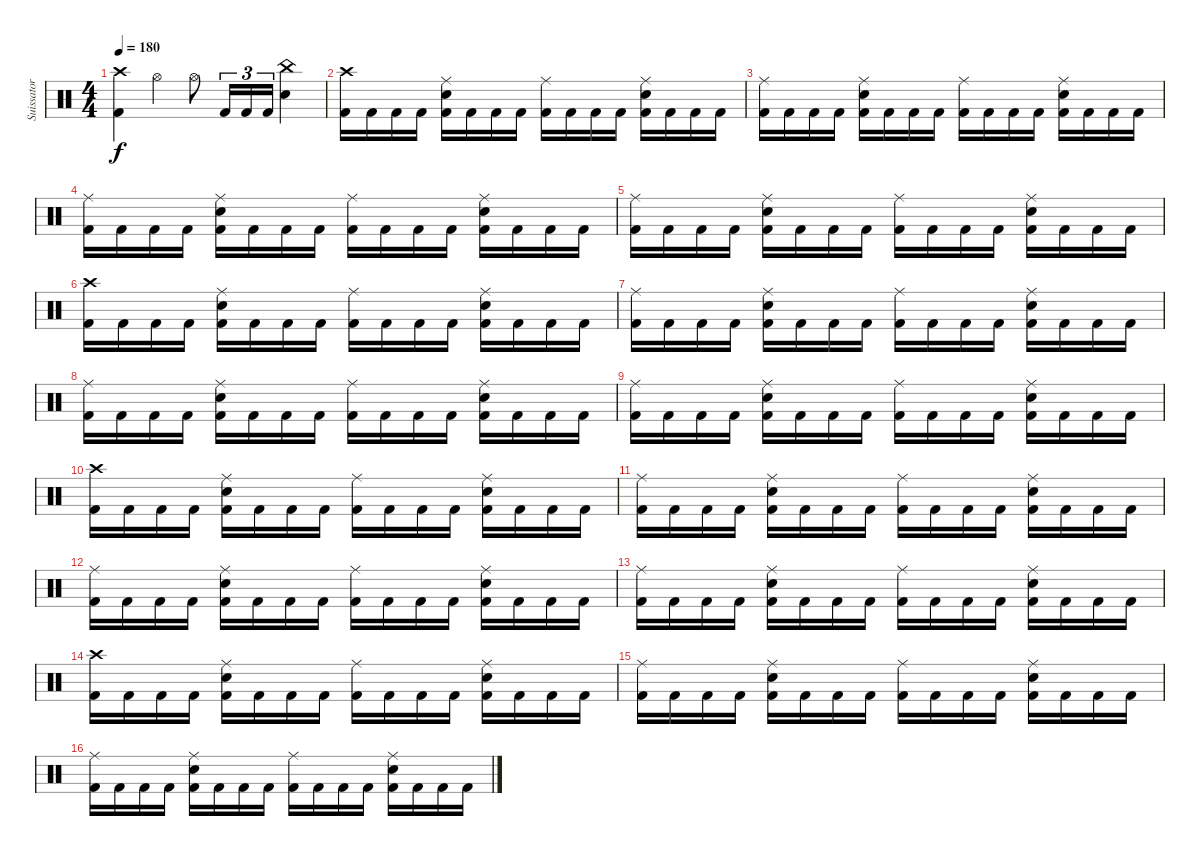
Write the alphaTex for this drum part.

\track ("Suissator" "Suissator") {instrument percussion}
\staff {score}
\articulation defaults
\ts (4 4)
\tempo 180
\clef neutral
\ks c
("Kick (hit) 2" "Crash high (hit)").4{dy f} "Hi-Hat (open)".4 "Hi-Hat (open)".8 "Kick (hit) 2".16{tu (3 2)} "Kick (hit) 2".16{tu (3 2)} "Kick (hit) 2".16{tu (3 2)} ("Electric Snare (hit)" "China (hit)").4 |
("Kick (hit) 2" "Crash high (hit)").16 "Kick (hit) 2".16 "Kick (hit) 2".16 "Kick (hit) 2".16 ("Kick (hit) 2" "Electric Snare (hit)" "Ride (middle)").16 "Kick (hit) 2".16 "Kick (hit) 2".16 "Kick (hit) 2".16 ("Kick (hit) 2" "Ride (middle)").16 "Kick (hit) 2".16 "Kick (hit) 2".16 "Kick (hit) 2".16 ("Kick (hit) 2" "Electric Snare (hit)" "Ride (middle)").16 "Kick (hit) 2".16 "Kick (hit) 2".16 "Kick (hit) 2".16 |
("Kick (hit) 2" "Ride (middle)").16 "Kick (hit) 2".16 "Kick (hit) 2".16 "Kick (hit) 2".16 ("Kick (hit) 2" "Electric Snare (hit)" "Ride (middle)").16 "Kick (hit) 2".16 "Kick (hit) 2".16 "Kick (hit) 2".16 ("Kick (hit) 2" "Ride (middle)").16 "Kick (hit) 2".16 "Kick (hit) 2".16 "Kick (hit) 2".16 ("Kick (hit) 2" "Electric Snare (hit)" "Ride (middle)").16 "Kick (hit) 2".16 "Kick (hit) 2".16 "Kick (hit) 2".16 |
("Kick (hit) 2" "Ride (middle)").16 "Kick (hit) 2".16 "Kick (hit) 2".16 "Kick (hit) 2".16 ("Kick (hit) 2" "Electric Snare (hit)" "Ride (middle)").16 "Kick (hit) 2".16 "Kick (hit) 2".16 "Kick (hit) 2".16 ("Kick (hit) 2" "Ride (middle)").16 "Kick (hit) 2".16 "Kick (hit) 2".16 "Kick (hit) 2".16 ("Kick (hit) 2" "Electric Snare (hit)" "Ride (middle)").16 "Kick (hit) 2".16 "Kick (hit) 2".16 "Kick (hit) 2".16 |
("Kick (hit) 2" "Ride (middle)").16 "Kick (hit) 2".16 "Kick (hit) 2".16 "Kick (hit) 2".16 ("Kick (hit) 2" "Electric Snare (hit)" "Ride (middle)").16 "Kick (hit) 2".16 "Kick (hit) 2".16 "Kick (hit) 2".16 ("Kick (hit) 2" "Ride (middle)").16 "Kick (hit) 2".16 "Kick (hit) 2".16 "Kick (hit) 2".16 ("Kick (hit) 2" "Electric Snare (hit)" "Ride (middle)").16 "Kick (hit) 2".16 "Kick (hit) 2".16 "Kick (hit) 2".16 |
("Kick (hit) 2" "Crash high (hit)").16 "Kick (hit) 2".16 "Kick (hit) 2".16 "Kick (hit) 2".16 ("Kick (hit) 2" "Electric Snare (hit)" "Ride (middle)").16 "Kick (hit) 2".16 "Kick (hit) 2".16 "Kick (hit) 2".16 ("Kick (hit) 2" "Ride (middle)").16 "Kick (hit) 2".16 "Kick (hit) 2".16 "Kick (hit) 2".16 ("Kick (hit) 2" "Electric Snare (hit)" "Ride (middle)").16 "Kick (hit) 2".16 "Kick (hit) 2".16 "Kick (hit) 2".16 |
("Kick (hit) 2" "Ride (middle)").16 "Kick (hit) 2".16 "Kick (hit) 2".16 "Kick (hit) 2".16 ("Kick (hit) 2" "Electric Snare (hit)" "Ride (middle)").16 "Kick (hit) 2".16 "Kick (hit) 2".16 "Kick (hit) 2".16 ("Kick (hit) 2" "Ride (middle)").16 "Kick (hit) 2".16 "Kick (hit) 2".16 "Kick (hit) 2".16 ("Kick (hit) 2" "Electric Snare (hit)" "Ride (middle)").16 "Kick (hit) 2".16 "Kick (hit) 2".16 "Kick (hit) 2".16 |
("Kick (hit) 2" "Ride (middle)").16 "Kick (hit) 2".16 "Kick (hit) 2".16 "Kick (hit) 2".16 ("Kick (hit) 2" "Electric Snare (hit)" "Ride (middle)").16 "Kick (hit) 2".16 "Kick (hit) 2".16 "Kick (hit) 2".16 ("Kick (hit) 2" "Ride (middle)").16 "Kick (hit) 2".16 "Kick (hit) 2".16 "Kick (hit) 2".16 ("Kick (hit) 2" "Electric Snare (hit)" "Ride (middle)").16 "Kick (hit) 2".16 "Kick (hit) 2".16 "Kick (hit) 2".16 |
("Kick (hit) 2" "Ride (middle)").16 "Kick (hit) 2".16 "Kick (hit) 2".16 "Kick (hit) 2".16 ("Kick (hit) 2" "Electric Snare (hit)" "Ride (middle)").16 "Kick (hit) 2".16 "Kick (hit) 2".16 "Kick (hit) 2".16 ("Kick (hit) 2" "Ride (middle)").16 "Kick (hit) 2".16 "Kick (hit) 2".16 "Kick (hit) 2".16 ("Kick (hit) 2" "Electric Snare (hit)" "Ride (middle)").16 "Kick (hit) 2".16 "Kick (hit) 2".16 "Kick (hit) 2".16 |
("Kick (hit) 2" "Crash high (hit)").16 "Kick (hit) 2".16 "Kick (hit) 2".16 "Kick (hit) 2".16 ("Kick (hit) 2" "Electric Snare (hit)" "Ride (middle)").16 "Kick (hit) 2".16 "Kick (hit) 2".16 "Kick (hit) 2".16 ("Kick (hit) 2" "Ride (middle)").16 "Kick (hit) 2".16 "Kick (hit) 2".16 "Kick (hit) 2".16 ("Kick (hit) 2" "Electric Snare (hit)" "Ride (middle)").16 "Kick (hit) 2".16 "Kick (hit) 2".16 "Kick (hit) 2".16 |
("Kick (hit) 2" "Ride (middle)").16 "Kick (hit) 2".16 "Kick (hit) 2".16 "Kick (hit) 2".16 ("Kick (hit) 2" "Electric Snare (hit)" "Ride (middle)").16 "Kick (hit) 2".16 "Kick (hit) 2".16 "Kick (hit) 2".16 ("Kick (hit) 2" "Ride (middle)").16 "Kick (hit) 2".16 "Kick (hit) 2".16 "Kick (hit) 2".16 ("Kick (hit) 2" "Electric Snare (hit)" "Ride (middle)").16 "Kick (hit) 2".16 "Kick (hit) 2".16 "Kick (hit) 2".16 |
("Kick (hit) 2" "Ride (middle)").16 "Kick (hit) 2".16 "Kick (hit) 2".16 "Kick (hit) 2".16 ("Kick (hit) 2" "Electric Snare (hit)" "Ride (middle)").16 "Kick (hit) 2".16 "Kick (hit) 2".16 "Kick (hit) 2".16 ("Kick (hit) 2" "Ride (middle)").16 "Kick (hit) 2".16 "Kick (hit) 2".16 "Kick (hit) 2".16 ("Kick (hit) 2" "Electric Snare (hit)" "Ride (middle)").16 "Kick (hit) 2".16 "Kick (hit) 2".16 "Kick (hit) 2".16 |
("Kick (hit) 2" "Ride (middle)").16 "Kick (hit) 2".16 "Kick (hit) 2".16 "Kick (hit) 2".16 ("Kick (hit) 2" "Electric Snare (hit)" "Ride (middle)").16 "Kick (hit) 2".16 "Kick (hit) 2".16 "Kick (hit) 2".16 ("Kick (hit) 2" "Ride (middle)").16 "Kick (hit) 2".16 "Kick (hit) 2".16 "Kick (hit) 2".16 ("Kick (hit) 2" "Electric Snare (hit)" "Ride (middle)").16 "Kick (hit) 2".16 "Kick (hit) 2".16 "Kick (hit) 2".16 |
("Kick (hit) 2" "Crash high (hit)").16 "Kick (hit) 2".16 "Kick (hit) 2".16 "Kick (hit) 2".16 ("Kick (hit) 2" "Electric Snare (hit)" "Ride (middle)").16 "Kick (hit) 2".16 "Kick (hit) 2".16 "Kick (hit) 2".16 ("Kick (hit) 2" "Ride (middle)").16 "Kick (hit) 2".16 "Kick (hit) 2".16 "Kick (hit) 2".16 ("Kick (hit) 2" "Electric Snare (hit)" "Ride (middle)").16 "Kick (hit) 2".16 "Kick (hit) 2".16 "Kick (hit) 2".16 |
("Kick (hit) 2" "Ride (middle)").16 "Kick (hit) 2".16 "Kick (hit) 2".16 "Kick (hit) 2".16 ("Kick (hit) 2" "Electric Snare (hit)" "Ride (middle)").16 "Kick (hit) 2".16 "Kick (hit) 2".16 "Kick (hit) 2".16 ("Kick (hit) 2" "Ride (middle)").16 "Kick (hit) 2".16 "Kick (hit) 2".16 "Kick (hit) 2".16 ("Kick (hit) 2" "Electric Snare (hit)" "Ride (middle)").16 "Kick (hit) 2".16 "Kick (hit) 2".16 "Kick (hit) 2".16 |
("Kick (hit) 2" "Ride (middle)").16 "Kick (hit) 2".16 "Kick (hit) 2".16 "Kick (hit) 2".16 ("Kick (hit) 2" "Electric Snare (hit)" "Ride (middle)").16 "Kick (hit) 2".16 "Kick (hit) 2".16 "Kick (hit) 2".16 ("Kick (hit) 2" "Ride (middle)").16 "Kick (hit) 2".16 "Kick (hit) 2".16 "Kick (hit) 2".16 ("Kick (hit) 2" "Electric Snare (hit)" "Ride (middle)").16 "Kick (hit) 2".16 "Kick (hit) 2".16 "Kick (hit) 2".16
